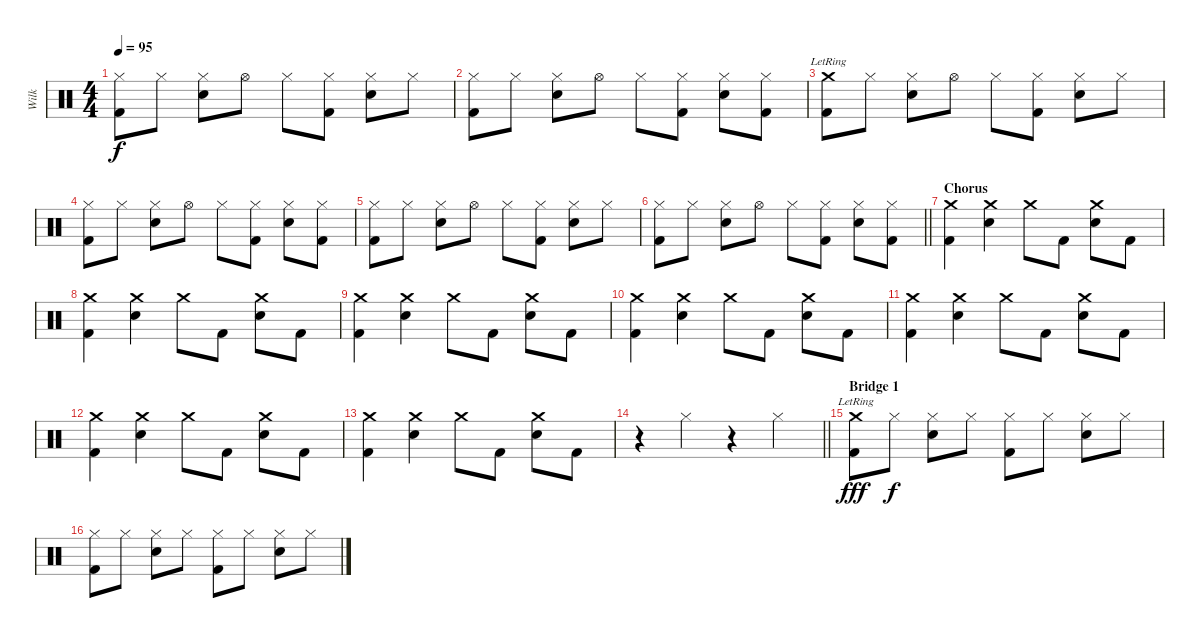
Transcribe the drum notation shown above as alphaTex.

\track ("Wilk" "Wilk") {instrument percussion}
\staff {score}
\articulation defaults
\ts (4 4)
\tempo 95
\clef neutral
\ks c
("Hi-Hat (closed)" "Kick (hit) 2").8{dy f} "Hi-Hat (closed)".8 ("Hi-Hat (closed)" "Snare (hit) 2").8 "Hi-Hat (open)".8 "Hi-Hat (closed)".8 ("Hi-Hat (closed)" "Kick (hit) 2").8 ("Hi-Hat (closed)" "Snare (hit) 2").8 "Hi-Hat (closed)".8 |
("Hi-Hat (closed)" "Kick (hit) 2").8 "Hi-Hat (closed)".8 ("Hi-Hat (closed)" "Snare (hit) 2").8 "Hi-Hat (open)".8 "Hi-Hat (closed)".8 ("Hi-Hat (closed)" "Kick (hit) 2").8 ("Hi-Hat (closed)" "Snare (hit) 2").8 ("Hi-Hat (closed)" "Kick (hit) 2").8 |
("Crash medium (hit)"{lr} "Kick (hit) 2").8 "Hi-Hat (closed)".8 ("Hi-Hat (closed)" "Snare (hit) 2").8 "Hi-Hat (open)".8 "Hi-Hat (closed)".8 ("Hi-Hat (closed)" "Kick (hit) 2").8 ("Hi-Hat (closed)" "Snare (hit) 2").8 "Hi-Hat (closed)".8 |
("Hi-Hat (closed)" "Kick (hit) 2").8 "Hi-Hat (closed)".8 ("Hi-Hat (closed)" "Snare (hit) 2").8 "Hi-Hat (open)".8 "Hi-Hat (closed)".8 ("Hi-Hat (closed)" "Kick (hit) 2").8 ("Hi-Hat (closed)" "Snare (hit) 2").8 ("Hi-Hat (closed)" "Kick (hit) 2").8 |
("Hi-Hat (closed)" "Kick (hit) 2").8 "Hi-Hat (closed)".8 ("Hi-Hat (closed)" "Snare (hit) 2").8 "Hi-Hat (open)".8 "Hi-Hat (closed)".8 ("Hi-Hat (closed)" "Kick (hit) 2").8 ("Hi-Hat (closed)" "Snare (hit) 2").8 "Hi-Hat (closed)".8 |
\barLineRight lightlight
("Hi-Hat (closed)" "Kick (hit) 2").8 "Hi-Hat (closed)".8 ("Hi-Hat (closed)" "Snare (hit) 2").8 "Hi-Hat (open)".8 "Hi-Hat (closed)".8 ("Hi-Hat (closed)" "Kick (hit) 2").8 ("Hi-Hat (closed)" "Snare (hit) 2").8 ("Hi-Hat (closed)" "Kick (hit) 2").8 |
\section ("" "Chorus")
("Crash medium (hit)" "Kick (hit) 2").4 ("Crash medium (hit)" "Snare (hit) 2").4 "Crash medium (hit)".8 "Kick (hit) 2".8 ("Crash medium (hit)" "Snare (hit) 2").8 "Kick (hit) 2".8 |
("Crash medium (hit)" "Kick (hit) 2").4 ("Crash medium (hit)" "Snare (hit) 2").4 "Crash medium (hit)".8 "Kick (hit) 2".8 ("Crash medium (hit)" "Snare (hit) 2").8 "Kick (hit) 2".8 |
("Crash medium (hit)" "Kick (hit) 2").4 ("Crash medium (hit)" "Snare (hit) 2").4 "Crash medium (hit)".8 "Kick (hit) 2".8 ("Crash medium (hit)" "Snare (hit) 2").8 "Kick (hit) 2".8 |
("Crash medium (hit)" "Kick (hit) 2").4 ("Crash medium (hit)" "Snare (hit) 2").4 "Crash medium (hit)".8 "Kick (hit) 2".8 ("Crash medium (hit)" "Snare (hit) 2").8 "Kick (hit) 2".8 |
("Crash medium (hit)" "Kick (hit) 2").4 ("Crash medium (hit)" "Snare (hit) 2").4 "Crash medium (hit)".8 "Kick (hit) 2".8 ("Crash medium (hit)" "Snare (hit) 2").8 "Kick (hit) 2".8 |
("Crash medium (hit)" "Kick (hit) 2").4 ("Crash medium (hit)" "Snare (hit) 2").4 "Crash medium (hit)".8 "Kick (hit) 2".8 ("Crash medium (hit)" "Snare (hit) 2").8 "Kick (hit) 2".8 |
("Crash medium (hit)" "Kick (hit) 2").4 ("Crash medium (hit)" "Snare (hit) 2").4 "Crash medium (hit)".8 "Kick (hit) 2".8 ("Crash medium (hit)" "Snare (hit) 2").8 "Kick (hit) 2".8 |
\barLineRight lightlight
r.4 "Hi-Hat (closed)".4 r.4 "Hi-Hat (closed)".4 |
\section ("" "Bridge 1")
("Crash medium (hit)"{lr} "Kick (hit) 2").8{dy fff} "Hi-Hat (closed)".8{dy f} ("Hi-Hat (closed)" "Snare (hit) 2").8 "Hi-Hat (closed)".8 ("Hi-Hat (closed)" "Kick (hit) 2").8 "Hi-Hat (closed)".8 ("Hi-Hat (closed)" "Snare (hit) 2").8 "Hi-Hat (closed)".8 |
("Hi-Hat (closed)" "Kick (hit) 2").8 "Hi-Hat (closed)".8 ("Hi-Hat (closed)" "Snare (hit) 2").8 "Hi-Hat (closed)".8 ("Hi-Hat (closed)" "Kick (hit) 2").8 "Hi-Hat (closed)".8 ("Hi-Hat (closed)" "Snare (hit) 2").8 "Hi-Hat (closed)".8
